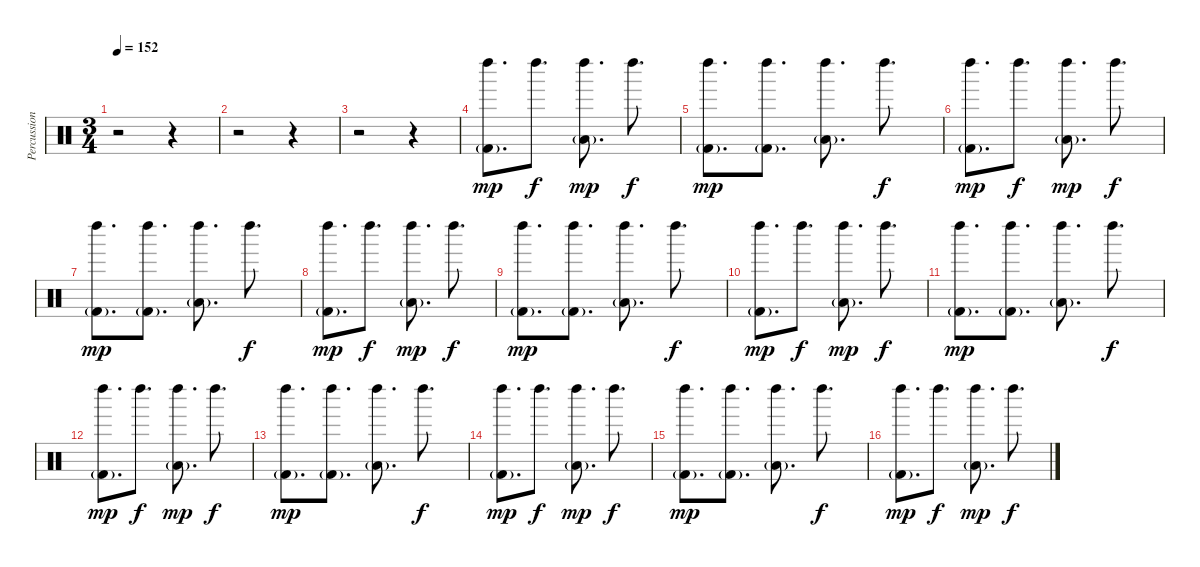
\track ("Percussion" "Percussion") {instrument percussion}
\staff {score}
\articulation defaults
\ts (3 4)
\tempo 152
\clef neutral
\ks c
r.2{dy mp} r.4 |
r.2 r.4 |
r.2 r.4 |
("Left Maraca (hit)" "Kick (hit) 2"{g}).8{d} "Left Maraca (hit)".8{d dy f} ("Left Maraca (hit)" "Low Tom (hit)"{g}).8{d dy mp} "Left Maraca (hit)".8{d dy f} |
("Left Maraca (hit)" "Kick (hit) 2"{g}).8{d dy mp} ("Left Maraca (hit)" "Kick (hit) 2"{g}).8{d} ("Left Maraca (hit)" "Low Tom (hit)"{g}).8{d} "Left Maraca (hit)".8{d dy f} |
("Left Maraca (hit)" "Kick (hit) 2"{g}).8{d dy mp} "Left Maraca (hit)".8{d dy f} ("Left Maraca (hit)" "Low Tom (hit)"{g}).8{d dy mp} "Left Maraca (hit)".8{d dy f} |
("Left Maraca (hit)" "Kick (hit) 2"{g}).8{d dy mp} ("Left Maraca (hit)" "Kick (hit) 2"{g}).8{d} ("Left Maraca (hit)" "Low Tom (hit)"{g}).8{d} "Left Maraca (hit)".8{d dy f} |
("Left Maraca (hit)" "Kick (hit) 2"{g}).8{d dy mp} "Left Maraca (hit)".8{d dy f} ("Left Maraca (hit)" "Low Tom (hit)"{g}).8{d dy mp} "Left Maraca (hit)".8{d dy f} |
("Left Maraca (hit)" "Kick (hit) 2"{g}).8{d dy mp} ("Left Maraca (hit)" "Kick (hit) 2"{g}).8{d} ("Left Maraca (hit)" "Low Tom (hit)"{g}).8{d} "Left Maraca (hit)".8{d dy f} |
("Left Maraca (hit)" "Kick (hit) 2"{g}).8{d dy mp} "Left Maraca (hit)".8{d dy f} ("Left Maraca (hit)" "Low Tom (hit)"{g}).8{d dy mp} "Left Maraca (hit)".8{d dy f} |
("Left Maraca (hit)" "Kick (hit) 2"{g}).8{d dy mp} ("Left Maraca (hit)" "Kick (hit) 2"{g}).8{d} ("Left Maraca (hit)" "Low Tom (hit)"{g}).8{d} "Left Maraca (hit)".8{d dy f} |
("Left Maraca (hit)" "Kick (hit) 2"{g}).8{d dy mp} "Left Maraca (hit)".8{d dy f} ("Left Maraca (hit)" "Low Tom (hit)"{g}).8{d dy mp} "Left Maraca (hit)".8{d dy f} |
("Left Maraca (hit)" "Kick (hit) 2"{g}).8{d dy mp} ("Left Maraca (hit)" "Kick (hit) 2"{g}).8{d} ("Left Maraca (hit)" "Low Tom (hit)"{g}).8{d} "Left Maraca (hit)".8{d dy f} |
("Left Maraca (hit)" "Kick (hit) 2"{g}).8{d dy mp} "Left Maraca (hit)".8{d dy f} ("Left Maraca (hit)" "Low Tom (hit)"{g}).8{d dy mp} "Left Maraca (hit)".8{d dy f} |
("Left Maraca (hit)" "Kick (hit) 2"{g}).8{d dy mp} ("Left Maraca (hit)" "Kick (hit) 2"{g}).8{d} ("Left Maraca (hit)" "Low Tom (hit)"{g}).8{d} "Left Maraca (hit)".8{d dy f} |
("Left Maraca (hit)" "Kick (hit) 2"{g}).8{d dy mp} "Left Maraca (hit)".8{d dy f} ("Left Maraca (hit)" "Low Tom (hit)"{g}).8{d dy mp} "Left Maraca (hit)".8{d dy f}
